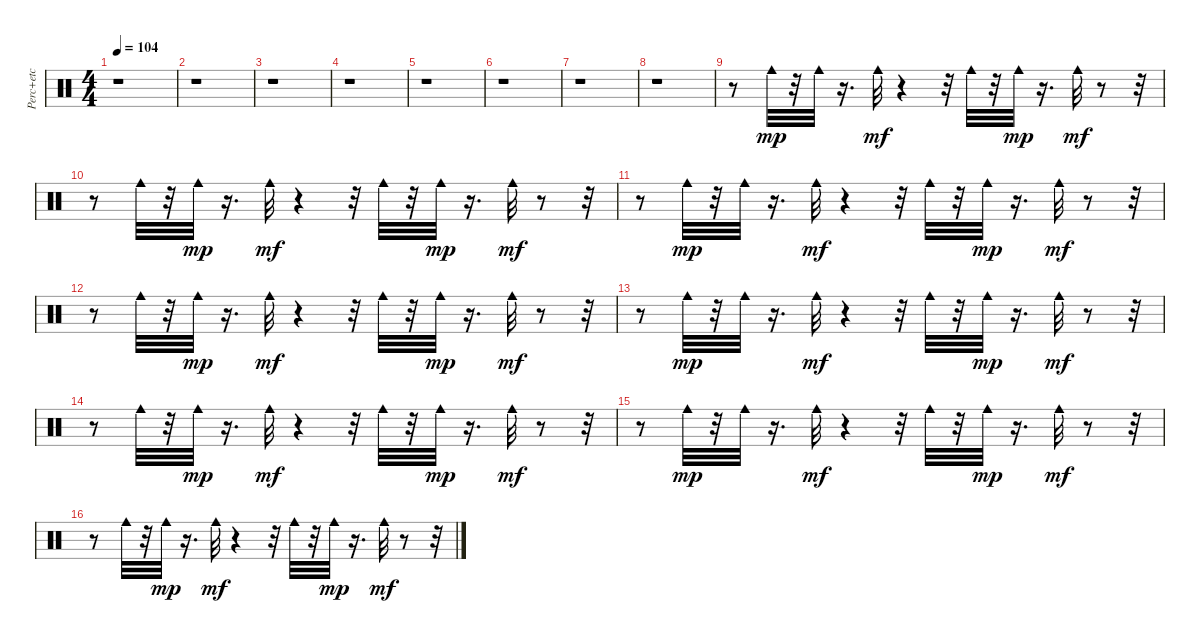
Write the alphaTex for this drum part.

\track ("Perc+etc" "Perc+etc") {instrument percussion}
\staff {score}
\articulation defaults
\ts (4 4)
\tempo 104
\clef neutral
\ks c
r.1{dy mp} |
r.1 |
r.1 |
r.1 |
r.1 |
r.1 |
r.1 |
r.1 |
r.8 "Cowbell medium (hit)".32 r.32 "Cowbell medium (hit)".32 r.16{d} "Cowbell medium (hit)".32{dy mf} r.4 r.32 "Cowbell medium (hit)".32 r.32 "Cowbell medium (hit)".32{dy mp} r.16{d} "Cowbell medium (hit)".32{dy mf} r.8 r.32 |
r.8 "Cowbell medium (hit)".32 r.32 "Cowbell medium (hit)".32{dy mp} r.16{d} "Cowbell medium (hit)".32{dy mf} r.4 r.32 "Cowbell medium (hit)".32 r.32 "Cowbell medium (hit)".32{dy mp} r.16{d} "Cowbell medium (hit)".32{dy mf} r.8 r.32 |
r.8 "Cowbell medium (hit)".32{dy mp} r.32 "Cowbell medium (hit)".32 r.16{d} "Cowbell medium (hit)".32{dy mf} r.4 r.32 "Cowbell medium (hit)".32 r.32 "Cowbell medium (hit)".32{dy mp} r.16{d} "Cowbell medium (hit)".32{dy mf} r.8 r.32 |
r.8 "Cowbell medium (hit)".32 r.32 "Cowbell medium (hit)".32{dy mp} r.16{d} "Cowbell medium (hit)".32{dy mf} r.4 r.32 "Cowbell medium (hit)".32 r.32 "Cowbell medium (hit)".32{dy mp} r.16{d} "Cowbell medium (hit)".32{dy mf} r.8 r.32 |
r.8 "Cowbell medium (hit)".32{dy mp} r.32 "Cowbell medium (hit)".32 r.16{d} "Cowbell medium (hit)".32{dy mf} r.4 r.32 "Cowbell medium (hit)".32 r.32 "Cowbell medium (hit)".32{dy mp} r.16{d} "Cowbell medium (hit)".32{dy mf} r.8 r.32 |
r.8 "Cowbell medium (hit)".32 r.32 "Cowbell medium (hit)".32{dy mp} r.16{d} "Cowbell medium (hit)".32{dy mf} r.4 r.32 "Cowbell medium (hit)".32 r.32 "Cowbell medium (hit)".32{dy mp} r.16{d} "Cowbell medium (hit)".32{dy mf} r.8 r.32 |
r.8 "Cowbell medium (hit)".32{dy mp} r.32 "Cowbell medium (hit)".32 r.16{d} "Cowbell medium (hit)".32{dy mf} r.4 r.32 "Cowbell medium (hit)".32 r.32 "Cowbell medium (hit)".32{dy mp} r.16{d} "Cowbell medium (hit)".32{dy mf} r.8 r.32 |
r.8 "Cowbell medium (hit)".32 r.32 "Cowbell medium (hit)".32{dy mp} r.16{d} "Cowbell medium (hit)".32{dy mf} r.4 r.32 "Cowbell medium (hit)".32 r.32 "Cowbell medium (hit)".32{dy mp} r.16{d} "Cowbell medium (hit)".32{dy mf} r.8 r.32
